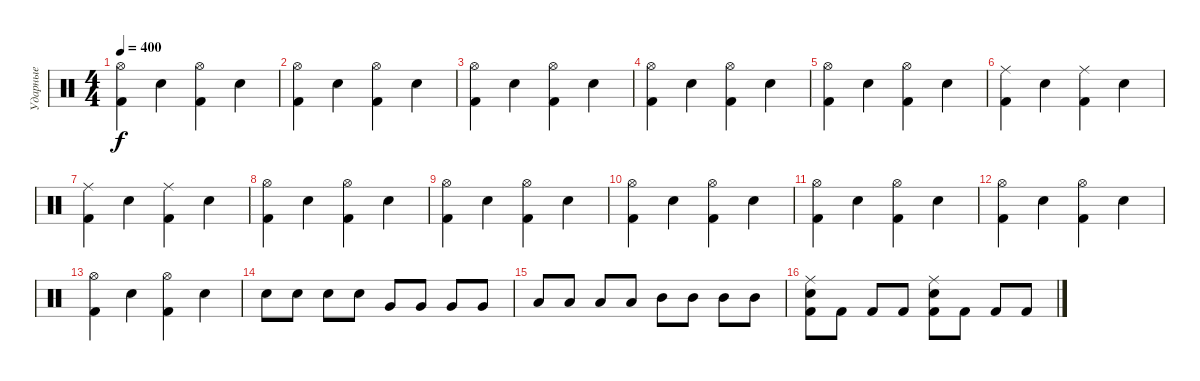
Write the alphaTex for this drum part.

\track ("Ударные" "Ударные") {instrument percussion}
\staff {score}
\articulation defaults
\ts (4 4)
\tempo 400
\clef neutral
\ks c
("Kick (hit) 2" "Hi-Hat (open)").4{dy f} "Electric Snare (hit)".4 ("Kick (hit) 2" "Hi-Hat (open)").4 "Electric Snare (hit)".4 |
("Kick (hit) 2" "Hi-Hat (open)").4 "Electric Snare (hit)".4 ("Kick (hit) 2" "Hi-Hat (open)").4 "Electric Snare (hit)".4 |
("Kick (hit) 2" "Hi-Hat (open)").4 "Electric Snare (hit)".4 ("Kick (hit) 2" "Hi-Hat (open)").4 "Electric Snare (hit)".4 |
("Kick (hit) 2" "Hi-Hat (open)").4 "Electric Snare (hit)".4 ("Kick (hit) 2" "Hi-Hat (open)").4 "Electric Snare (hit)".4 |
("Kick (hit) 2" "Hi-Hat (open)").4 "Electric Snare (hit)".4 ("Kick (hit) 2" "Hi-Hat (open)").4 "Electric Snare (hit)".4 |
("Kick (hit) 2" "Ride (middle)").4 "Electric Snare (hit)".4 ("Kick (hit) 2" "Ride (middle)").4 "Electric Snare (hit)".4 |
("Kick (hit) 2" "Ride (middle)").4 "Electric Snare (hit)".4 ("Kick (hit) 2" "Ride (middle)").4 "Electric Snare (hit)".4 |
("Kick (hit) 2" "Hi-Hat (open)").4 "Electric Snare (hit)".4 ("Kick (hit) 2" "Hi-Hat (open)").4 "Electric Snare (hit)".4 |
("Kick (hit) 2" "Hi-Hat (open)").4 "Electric Snare (hit)".4 ("Kick (hit) 2" "Hi-Hat (open)").4 "Electric Snare (hit)".4 |
("Kick (hit) 2" "Hi-Hat (open)").4 "Electric Snare (hit)".4 ("Kick (hit) 2" "Hi-Hat (open)").4 "Electric Snare (hit)".4 |
("Kick (hit) 2" "Hi-Hat (open)").4 "Electric Snare (hit)".4 ("Kick (hit) 2" "Hi-Hat (open)").4 "Electric Snare (hit)".4 |
("Kick (hit) 2" "Hi-Hat (open)").4 "Electric Snare (hit)".4 ("Kick (hit) 2" "Hi-Hat (open)").4 "Electric Snare (hit)".4 |
("Kick (hit) 2" "Hi-Hat (open)").4 "Electric Snare (hit)".4 ("Kick (hit) 2" "Hi-Hat (open)").4 "Electric Snare (hit)".4 |
"Electric Snare (hit)".8 "Electric Snare (hit)".8 "Electric Snare (hit)".8 "Snare (hit) 2".8 "Very Low Tom (hit)".8 "Very Low Tom (hit)".8 "Very Low Tom (hit)".8 "Very Low Tom (hit)".8 |
"Low Tom (hit)".8 "Low Tom (hit)".8 "Low Tom (hit)".8 "Low Tom (hit)".8 "Mid Tom (hit)".8 "Mid Tom (hit)".8 "Mid Tom (hit)".8 "Mid Tom (hit)".8 |
("Kick (hit) 2" "Electric Snare (hit)" "Ride (middle)").8 "Kick (hit) 2".8 "Kick (hit) 2".8 "Kick (hit) 2".8 ("Kick (hit) 2" "Electric Snare (hit)" "Ride (middle)").8 "Kick (hit) 2".8 "Kick (hit) 2".8 "Kick (hit) 2".8
